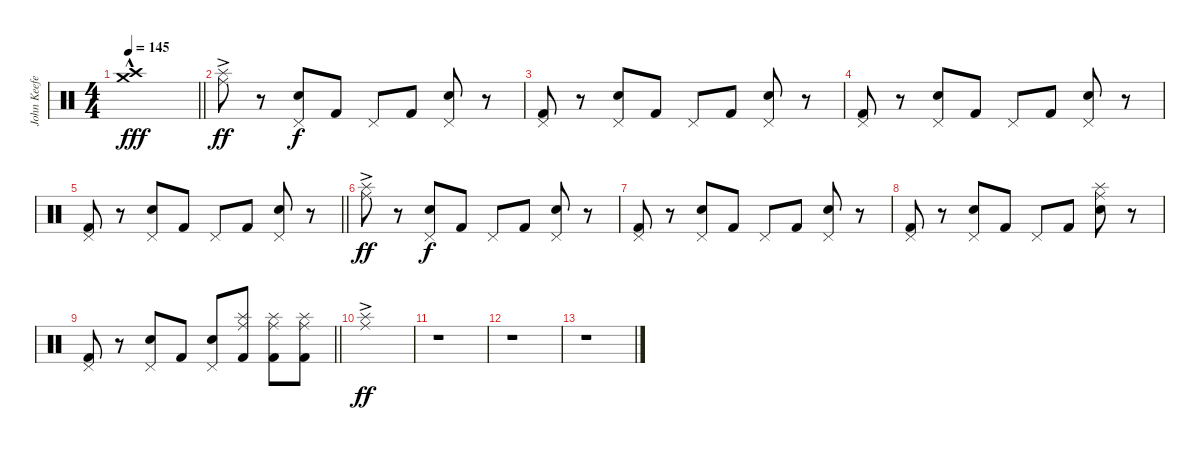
\track ("John Keefe (Percussion)" "John Keefe") {instrument percussion}
\staff {score}
\articulation defaults
\ts (4 4)
\tempo 145
\clef neutral
\barLineRight lightlight
\ks c
("Crash high (hit)"{hac} "Crash medium (hit)"{hac}).1{dy fff} |
("Ride (middle)" "Splash (hit)"{ac}).8{dy ff} r.8 ("Pedal Hi-Hat (hit)" "Electric Snare (hit)").8{dy f} "Kick (hit) 2".8 "Pedal Hi-Hat (hit)".8 "Kick (hit) 2".8 ("Pedal Hi-Hat (hit)" "Electric Snare (hit)").8 r.8 |
("Pedal Hi-Hat (hit)" "Kick (hit) 2").8 r.8 ("Pedal Hi-Hat (hit)" "Electric Snare (hit)").8 "Kick (hit) 2".8 "Pedal Hi-Hat (hit)".8 "Kick (hit) 2".8 ("Pedal Hi-Hat (hit)" "Electric Snare (hit)").8 r.8 |
("Pedal Hi-Hat (hit)" "Kick (hit) 2").8 r.8 ("Pedal Hi-Hat (hit)" "Electric Snare (hit)").8 "Kick (hit) 2".8 "Pedal Hi-Hat (hit)".8 "Kick (hit) 2".8 ("Pedal Hi-Hat (hit)" "Electric Snare (hit)").8 r.8 |
\barLineRight lightlight
("Pedal Hi-Hat (hit)" "Kick (hit) 2").8 r.8 ("Pedal Hi-Hat (hit)" "Electric Snare (hit)").8 "Kick (hit) 2".8 "Pedal Hi-Hat (hit)".8 "Kick (hit) 2".8 ("Pedal Hi-Hat (hit)" "Electric Snare (hit)").8 r.8 |
("Ride (middle)"{ac} "Splash (hit)"{ac}).8{dy ff} r.8 ("Pedal Hi-Hat (hit)" "Electric Snare (hit)").8{dy f} "Kick (hit) 2".8 "Pedal Hi-Hat (hit)".8 "Kick (hit) 2".8 ("Pedal Hi-Hat (hit)" "Electric Snare (hit)").8 r.8 |
("Pedal Hi-Hat (hit)" "Kick (hit) 2").8 r.8 ("Pedal Hi-Hat (hit)" "Electric Snare (hit)").8 "Kick (hit) 2".8 "Pedal Hi-Hat (hit)".8 "Kick (hit) 2".8 ("Pedal Hi-Hat (hit)" "Electric Snare (hit)").8 r.8 |
("Pedal Hi-Hat (hit)" "Kick (hit) 2").8 r.8 ("Pedal Hi-Hat (hit)" "Electric Snare (hit)").8 "Kick (hit) 2".8 "Pedal Hi-Hat (hit)".8 "Kick (hit) 2".8 ("Ride (middle)" "Splash (hit)" "Electric Snare (hit)").8 r.8 |
\barLineRight lightlight
("Pedal Hi-Hat (hit)" "Kick (hit) 2").8 r.8 ("Pedal Hi-Hat (hit)" "Electric Snare (hit)").8 "Kick (hit) 2".8 ("Pedal Hi-Hat (hit)" "Electric Snare (hit)").8 ("Ride (middle)" "Splash (hit)" "Kick (hit) 2").8 ("Ride (middle)" "Splash (hit)" "Kick (hit) 2").8 ("Ride (middle)" "Splash (hit)" "Kick (hit) 2").8 |
("Ride (middle)"{ac} "Splash (hit)"{ac}).1{dy ff} |
r.1 |
r.1 |
r.1
